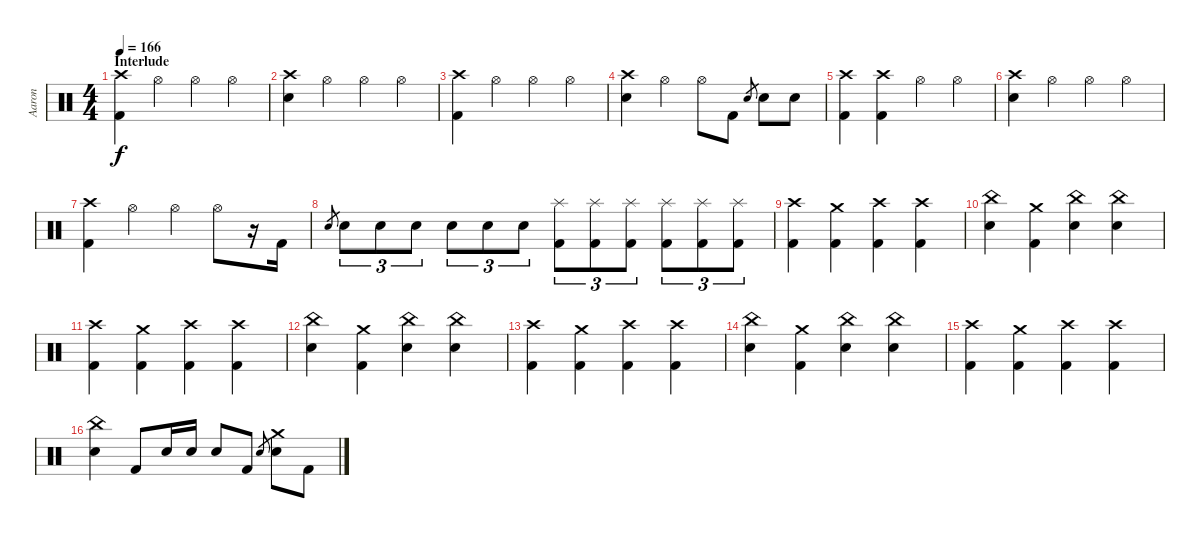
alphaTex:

\track ("Aaron" "Aaron") {instrument percussion}
\staff {score}
\articulation defaults
\ts (4 4)
\section ("" "Interlude")
\tempo 166
\clef neutral
\ks c
("Crash high (hit)" "Kick (hit) 2").4{dy f} "Hi-Hat (open)".4 "Hi-Hat (open)".4 "Hi-Hat (open)".4 |
("Crash high (hit)" "Snare (hit) 2").4 "Hi-Hat (open)".4 "Hi-Hat (open)".4 "Hi-Hat (open)".4 |
("Crash high (hit)" "Kick (hit) 2").4 "Hi-Hat (open)".4 "Hi-Hat (open)".4 "Hi-Hat (open)".4 |
("Crash high (hit)" "Snare (hit) 2").4 "Hi-Hat (open)".4 "Hi-Hat (open)".8 "Kick (hit) 2".8 "Snare (hit) 2".8{gr} "Snare (hit) 2".8 "Snare (hit) 2".8 |
("Crash high (hit)" "Kick (hit) 2").4 ("Crash high (hit)" "Kick (hit) 2").4 "Hi-Hat (open)".4 "Hi-Hat (open)".4 |
("Crash high (hit)" "Snare (hit) 2").4 "Hi-Hat (open)".4 "Hi-Hat (open)".4 "Hi-Hat (open)".4 |
("Crash high (hit)" "Kick (hit) 2").4 "Hi-Hat (open)".4 "Hi-Hat (open)".4 "Hi-Hat (open)".8 r.16 "Kick (hit) 2".16 |
"Snare (hit) 2".8{gr} "Snare (hit) 2".8{tu (3 2)} "Snare (hit) 2".8{tu (3 2)} "Snare (hit) 2".8{tu (3 2)} "Snare (hit) 2".8{tu (3 2)} "Snare (hit) 2".8{tu (3 2)} "Snare (hit) 2".8{tu (3 2)} ("Splash (hit)" "Kick (hit) 2").8{tu (3 2)} ("Splash (hit)" "Kick (hit) 2").8{tu (3 2)} ("Splash (hit)" "Kick (hit) 2").8{tu (3 2)} ("Splash (hit)" "Kick (hit) 2").8{tu (3 2)} ("Splash (hit)" "Kick (hit) 2").8{tu (3 2)} ("Splash (hit)" "Kick (hit) 2").8{tu (3 2)} |
("Crash high (hit)" "Kick (hit) 2").4 ("Crash medium (hit)" "Kick (hit) 2").4 ("Crash high (hit)" "Kick (hit) 2").4 ("Crash high (hit)" "Kick (hit) 2").4 |
("China (hit)" "Snare (hit) 2").4 ("Crash medium (hit)" "Kick (hit) 2").4 ("China (hit)" "Snare (hit) 2").4 ("China (hit)" "Snare (hit) 2").4 |
("Crash high (hit)" "Kick (hit) 2").4 ("Crash medium (hit)" "Kick (hit) 2").4 ("Crash high (hit)" "Kick (hit) 2").4 ("Crash high (hit)" "Kick (hit) 2").4 |
("China (hit)" "Snare (hit) 2").4 ("Crash medium (hit)" "Kick (hit) 2").4 ("China (hit)" "Snare (hit) 2").4 ("China (hit)" "Snare (hit) 2").4 |
("Crash high (hit)" "Kick (hit) 2").4 ("Crash medium (hit)" "Kick (hit) 2").4 ("Crash high (hit)" "Kick (hit) 2").4 ("Crash high (hit)" "Kick (hit) 2").4 |
("China (hit)" "Snare (hit) 2").4 ("Crash medium (hit)" "Kick (hit) 2").4 ("China (hit)" "Snare (hit) 2").4 ("China (hit)" "Snare (hit) 2").4 |
("Crash high (hit)" "Kick (hit) 2").4 ("Crash medium (hit)" "Kick (hit) 2").4 ("Crash high (hit)" "Kick (hit) 2").4 ("Crash high (hit)" "Kick (hit) 2").4 |
("China (hit)" "Snare (hit) 2").4 "Kick (hit) 2".8 "Snare (hit) 2".16 "Snare (hit) 2".16 "Snare (hit) 2".8 "Kick (hit) 2".8 "Snare (hit) 2".8{gr} ("Crash medium (hit)" "Snare (hit) 2").8 "Kick (hit) 2".8
